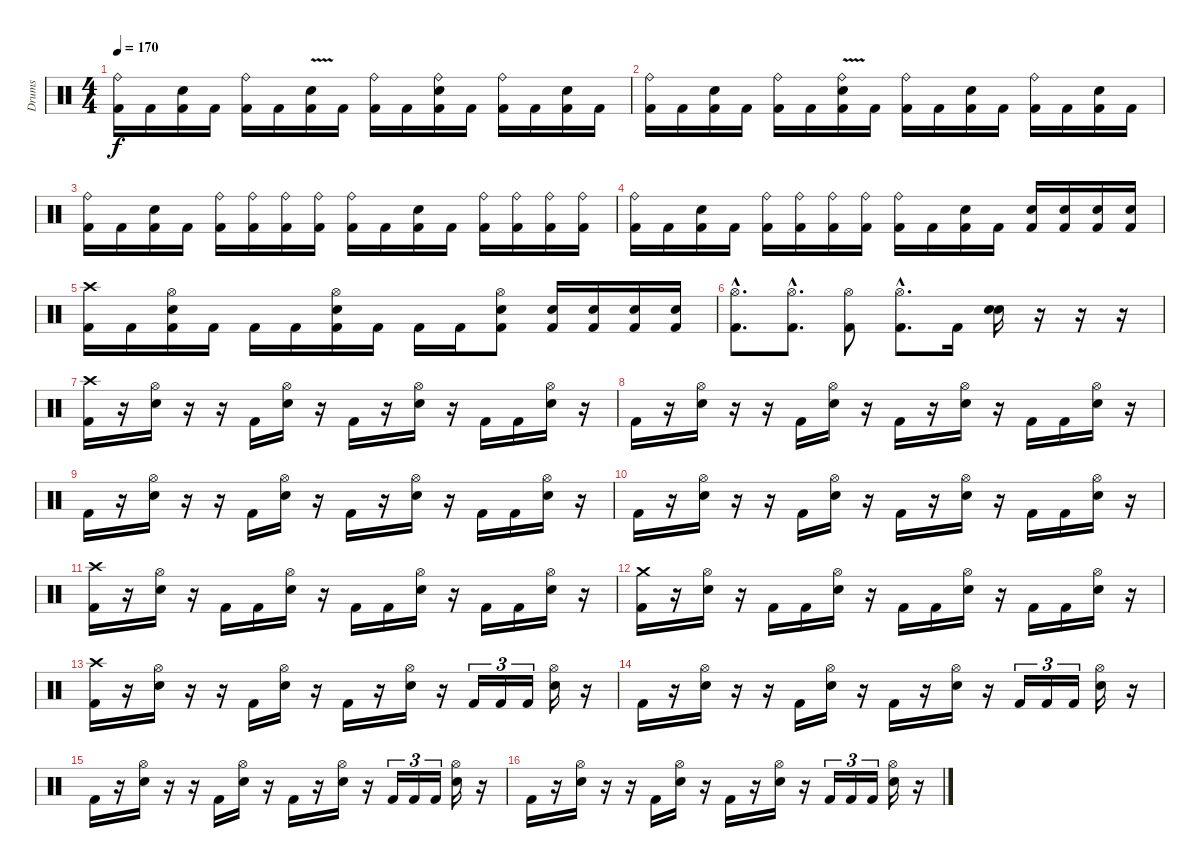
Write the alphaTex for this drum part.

\track ("Drums" "Drums") {instrument percussion}
\staff {score}
\articulation defaults
\ts (4 4)
\tempo 170
\clef neutral
\ks c
("Kick (hit) 2" "Ride (bell)").16{dy f} "Kick (hit) 2".16 ("Kick (hit) 2" "Electric Snare (hit)").16 "Kick (hit) 2".16 ("Kick (hit) 2" "Ride (bell)").16 "Kick (hit) 2".16 ("Kick (hit) 2" "Electric Snare (hit)"{v}).16 "Kick (hit) 2".16 ("Kick (hit) 2" "Ride (bell)").16 "Kick (hit) 2".16 ("Kick (hit) 2" "Electric Snare (hit)" "Ride (bell)").16 "Kick (hit) 2".16 ("Kick (hit) 2" "Ride (bell)").16 "Kick (hit) 2".16 ("Kick (hit) 2" "Electric Snare (hit)").16 "Kick (hit) 2".16 |
("Kick (hit) 2" "Ride (bell)").16 "Kick (hit) 2".16 ("Kick (hit) 2" "Electric Snare (hit)").16 "Kick (hit) 2".16 ("Kick (hit) 2" "Ride (bell)").16 "Kick (hit) 2".16 ("Kick (hit) 2" "Electric Snare (hit)"{v} "Ride (bell)").16 "Kick (hit) 2".16 ("Kick (hit) 2" "Ride (bell)").16 "Kick (hit) 2".16 ("Kick (hit) 2" "Electric Snare (hit)").16 "Kick (hit) 2".16 ("Kick (hit) 2" "Ride (bell)").16 "Kick (hit) 2".16 ("Kick (hit) 2" "Electric Snare (hit)").16 "Kick (hit) 2".16 |
("Kick (hit) 2" "Ride (bell)").16 "Kick (hit) 2".16 ("Kick (hit) 2" "Electric Snare (hit)").16 "Kick (hit) 2".16 ("Kick (hit) 2" "Ride (bell)").16 ("Kick (hit) 2" "Ride (bell)").16 ("Kick (hit) 2" "Ride (bell)").16 ("Kick (hit) 2" "Ride (bell)").16 ("Kick (hit) 2" "Ride (bell)").16 "Kick (hit) 2".16 ("Kick (hit) 2" "Electric Snare (hit)").16 "Kick (hit) 2".16 ("Kick (hit) 2" "Ride (bell)").16 ("Kick (hit) 2" "Ride (bell)").16 ("Kick (hit) 2" "Ride (bell)").16 ("Kick (hit) 2" "Ride (bell)").16 |
("Kick (hit) 2" "Ride (bell)").16 "Kick (hit) 2".16 ("Kick (hit) 2" "Electric Snare (hit)").16 "Kick (hit) 2".16 ("Kick (hit) 2" "Ride (bell)").16 ("Kick (hit) 2" "Ride (bell)").16 ("Kick (hit) 2" "Ride (bell)").16 ("Kick (hit) 2" "Ride (bell)").16 ("Kick (hit) 2" "Ride (bell)").16 "Kick (hit) 2".16 ("Kick (hit) 2" "Electric Snare (hit)").16 "Kick (hit) 2".16 ("Kick (hit) 2" "Electric Snare (hit)").16 ("Kick (hit) 2" "Electric Snare (hit)").16 ("Kick (hit) 2" "Electric Snare (hit)").16 ("Kick (hit) 2" "Electric Snare (hit)").16 |
("Kick (hit) 2" "Crash high (hit)").16 "Kick (hit) 2".16 ("Kick (hit) 2" "Electric Snare (hit)" "Hi-Hat (open)").16 "Kick (hit) 2".16 "Kick (hit) 2".16 "Kick (hit) 2".16 ("Kick (hit) 2" "Electric Snare (hit)" "Hi-Hat (open)").16 "Kick (hit) 2".16 "Kick (hit) 2".16 "Kick (hit) 2".16 ("Kick (hit) 2" "Electric Snare (hit)" "Hi-Hat (open)").8 ("Kick (hit) 2" "Electric Snare (hit)").16 ("Kick (hit) 2" "Electric Snare (hit)").16 ("Kick (hit) 2" "Electric Snare (hit)").16 ("Kick (hit) 2" "Electric Snare (hit)").16 |
("Kick (hit) 2"{hac} "Hi-Hat (open)"{hac}).8{d} ("Kick (hit) 2"{hac} "Hi-Hat (open)"{hac}).8{d} ("Kick (hit) 2" "Hi-Hat (open)").8 ("Kick (hit) 2"{hac} "Hi-Hat (open)"{hac}).8{d} "Kick (hit) 2".16 ("Electric Snare (hit)" "Snare (hit) 2").16 r.16 r.16 r.16 |
("Kick (hit) 2" "Crash high (hit)").16 r.16 ("Electric Snare (hit)" "Hi-Hat (open)").16 r.16 r.16 "Kick (hit) 2".16 ("Electric Snare (hit)" "Hi-Hat (open)").16 r.16 "Kick (hit) 2".16 r.16 ("Electric Snare (hit)" "Hi-Hat (open)").16 r.16 "Kick (hit) 2".16 "Kick (hit) 2".16 ("Electric Snare (hit)" "Hi-Hat (open)").16 r.16 |
"Kick (hit) 2".16 r.16 ("Electric Snare (hit)" "Hi-Hat (open)").16 r.16 r.16 "Kick (hit) 2".16 ("Electric Snare (hit)" "Hi-Hat (open)").16 r.16 "Kick (hit) 2".16 r.16 ("Electric Snare (hit)" "Hi-Hat (open)").16 r.16 "Kick (hit) 2".16 "Kick (hit) 2".16 ("Electric Snare (hit)" "Hi-Hat (open)").16 r.16 |
"Kick (hit) 2".16 r.16 ("Electric Snare (hit)" "Hi-Hat (open)").16 r.16 r.16 "Kick (hit) 2".16 ("Electric Snare (hit)" "Hi-Hat (open)").16 r.16 "Kick (hit) 2".16 r.16 ("Electric Snare (hit)" "Hi-Hat (open)").16 r.16 "Kick (hit) 2".16 "Kick (hit) 2".16 ("Electric Snare (hit)" "Hi-Hat (open)").16 r.16 |
"Kick (hit) 2".16 r.16 ("Electric Snare (hit)" "Hi-Hat (open)").16 r.16 r.16 "Kick (hit) 2".16 ("Electric Snare (hit)" "Hi-Hat (open)").16 r.16 "Kick (hit) 2".16 r.16 ("Electric Snare (hit)" "Hi-Hat (open)").16 r.16 "Kick (hit) 2".16 "Kick (hit) 2".16 ("Electric Snare (hit)" "Hi-Hat (open)").16 r.16 |
("Kick (hit) 2" "Crash high (hit)").16 r.16 ("Electric Snare (hit)" "Hi-Hat (open)").16 r.16 "Kick (hit) 2".16 "Kick (hit) 2".16 ("Electric Snare (hit)" "Hi-Hat (open)").16 r.16 "Kick (hit) 2".16 "Kick (hit) 2".16 ("Electric Snare (hit)" "Hi-Hat (open)").16 r.16 "Kick (hit) 2".16 "Kick (hit) 2".16 ("Electric Snare (hit)" "Hi-Hat (open)").16 r.16 |
("Kick (hit) 2" "Crash medium (hit)").16 r.16 ("Electric Snare (hit)" "Hi-Hat (open)").16 r.16 "Kick (hit) 2".16 "Kick (hit) 2".16 ("Electric Snare (hit)" "Hi-Hat (open)").16 r.16 "Kick (hit) 2".16 "Kick (hit) 2".16 ("Electric Snare (hit)" "Hi-Hat (open)").16 r.16 "Kick (hit) 2".16 "Kick (hit) 2".16 ("Electric Snare (hit)" "Hi-Hat (open)").16 r.16 |
("Kick (hit) 2" "Crash high (hit)").16 r.16 ("Electric Snare (hit)" "Hi-Hat (open)").16 r.16 r.16 "Kick (hit) 2".16 ("Electric Snare (hit)" "Hi-Hat (open)").16 r.16 "Kick (hit) 2".16 r.16 ("Electric Snare (hit)" "Hi-Hat (open)").16 r.16 "Kick (hit) 2".16{tu (3 2)} "Kick (hit) 2".16{tu (3 2)} "Kick (hit) 2".16{tu (3 2)} ("Electric Snare (hit)" "Hi-Hat (open)").16 r.16 |
"Kick (hit) 2".16 r.16 ("Electric Snare (hit)" "Hi-Hat (open)").16 r.16 r.16 "Kick (hit) 2".16 ("Electric Snare (hit)" "Hi-Hat (open)").16 r.16 "Kick (hit) 2".16 r.16 ("Electric Snare (hit)" "Hi-Hat (open)").16 r.16 "Kick (hit) 2".16{tu (3 2)} "Kick (hit) 2".16{tu (3 2)} "Kick (hit) 2".16{tu (3 2)} ("Electric Snare (hit)" "Hi-Hat (open)").16 r.16 |
"Kick (hit) 2".16 r.16 ("Electric Snare (hit)" "Hi-Hat (open)").16 r.16 r.16 "Kick (hit) 2".16 ("Electric Snare (hit)" "Hi-Hat (open)").16 r.16 "Kick (hit) 2".16 r.16 ("Electric Snare (hit)" "Hi-Hat (open)").16 r.16 "Kick (hit) 2".16{tu (3 2)} "Kick (hit) 2".16{tu (3 2)} "Kick (hit) 2".16{tu (3 2)} ("Electric Snare (hit)" "Hi-Hat (open)").16 r.16 |
"Kick (hit) 2".16 r.16 ("Electric Snare (hit)" "Hi-Hat (open)").16 r.16 r.16 "Kick (hit) 2".16 ("Electric Snare (hit)" "Hi-Hat (open)").16 r.16 "Kick (hit) 2".16 r.16 ("Electric Snare (hit)" "Hi-Hat (open)").16 r.16 "Kick (hit) 2".16{tu (3 2)} "Kick (hit) 2".16{tu (3 2)} "Kick (hit) 2".16{tu (3 2)} ("Electric Snare (hit)" "Hi-Hat (open)").16 r.16
